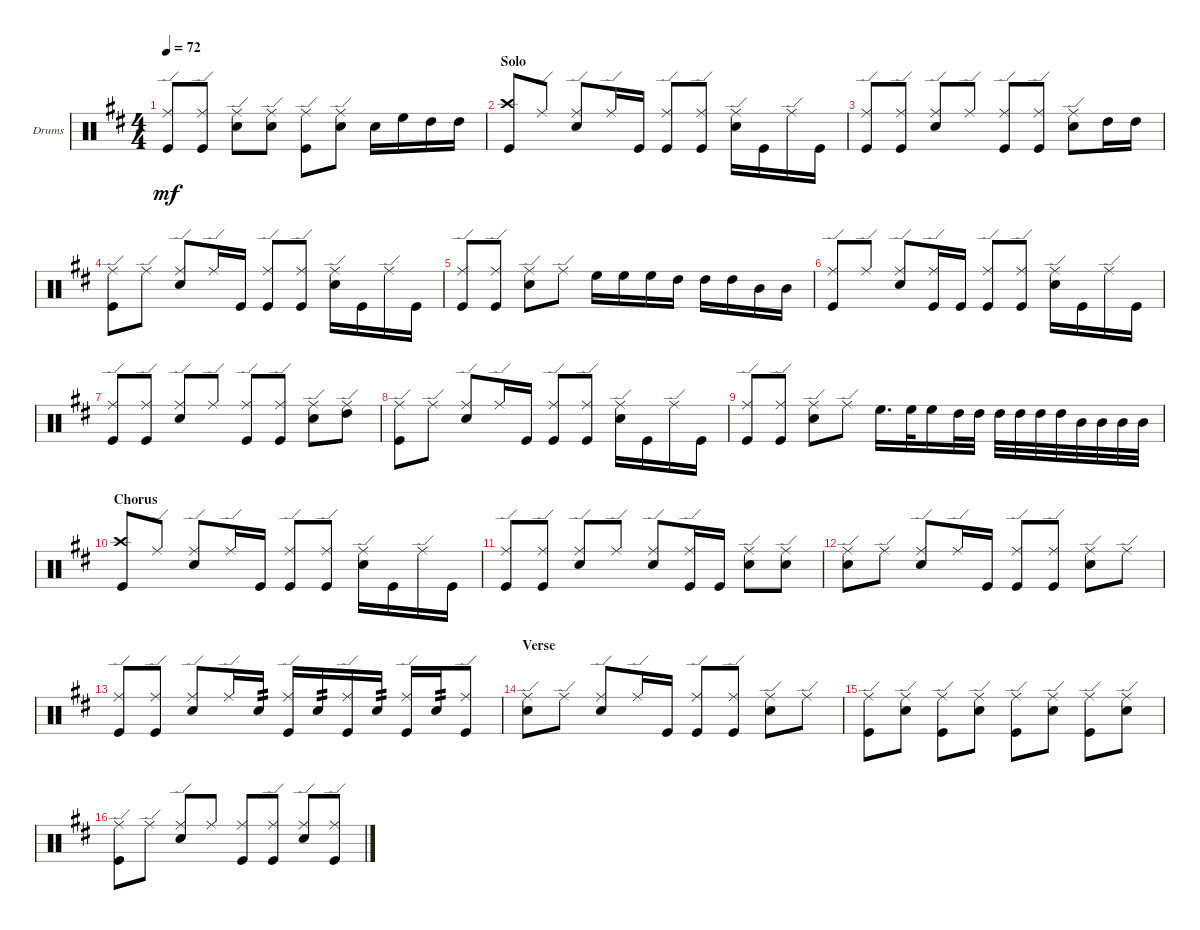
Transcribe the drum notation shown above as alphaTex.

\defaultSystemsLayout 4
\bracketExtendMode groupsimilarinstruments
\firstSystemTrackNameOrientation horizontal
\otherSystemsTrackNameOrientation horizontal
\track ("PETER CRISS" "Drums") {instrument percussion}
\staff {score}
\articulation defaults
\ts (4 4)
\tempo 72
\clef neutral
\scale
0.333333
\ks d
("Ride (edge)" "Kick (hit)").8{dy mf beam invert} ("Kick (hit)" "Ride (edge)").8 ("Ride (edge)" "Snare (hit) 2").8 ("Ride (edge)" "Snare (hit) 2").8 ("Kick (hit)" "Ride (edge)").8 ("Ride (edge)" "Snare (hit) 2").8 "Snare (hit) 2".16 "High Floor Tom (hit)".16 "High Tom (hit)".16 "High Tom (hit)".16 |
\section ("" "Solo")
\scale
0.333333 ("Crash high (hit)" "Kick (hit)").8{beam invert} "Ride (edge)".8 ("Ride (edge)" "Snare (hit) 2").8 "Ride (edge)".16 "Kick (hit)".16 ("Ride (edge)" "Kick (hit)").8{beam invert} ("Kick (hit)" "Ride (edge)").8 ("Snare (hit) 2" "Ride (edge)").16 "Kick (hit)".16 "Ride (edge)".16 "Kick (hit)".16 |
\scale
0.333333 ("Ride (edge)" "Kick (hit)").8{beam invert} ("Kick (hit)" "Ride (edge)").8 ("Snare (hit) 2" "Ride (edge)").8 "Ride (edge)".8 ("Ride (edge)" "Kick (hit)").8{beam invert} ("Kick (hit)" "Ride (edge)").8 ("Ride (edge)" "Snare (hit) 2").8 "High Tom (hit)".16 "High Tom (hit)".16 |
\scale
0.333333 ("Ride (edge)" "Kick (hit)").8 "Ride (edge)".8 ("Ride (edge)" "Snare (hit) 2").8 "Ride (edge)".16 "Kick (hit)".16 ("Kick (hit)" "Ride (edge)").8{beam invert} ("Ride (edge)" "Kick (hit)").8 ("Snare (hit) 2" "Ride (edge)").16 "Kick (hit)".16 "Ride (edge)".16 "Kick (hit)".16 |
\scale
0.333333 ("Ride (edge)" "Kick (hit)").8{beam invert} ("Kick (hit)" "Ride (edge)").8 ("Snare (hit) 2" "Ride (edge)").8 "Ride (edge)".8 "High Floor Tom (hit)".16 "High Floor Tom (hit)".16 "High Floor Tom (hit)".16 "High Tom (hit)".16 "High Tom (hit)".16 "High Tom (hit)".16 "Mid Tom (hit)".16 "Mid Tom (hit)".16 |
\scale
0.333333 ("Ride (edge)" "Kick (hit)").8 "Ride (edge)".8 ("Ride (edge)" "Snare (hit) 2").8{beam invert} ("Ride (edge)" "Kick (hit)").16 "Kick (hit)".16 ("Kick (hit)" "Ride (edge)").8{beam invert} ("Ride (edge)" "Kick (hit)").8 ("Snare (hit) 2" "Ride (edge)").16 "Kick (hit)".16 "Ride (edge)".16 "Kick (hit)".16 |
\scale
0.333333 ("Ride (edge)" "Kick (hit)").8{beam invert} ("Kick (hit)" "Ride (edge)").8 ("Snare (hit) 2" "Ride (edge)").8 "Ride (edge)".8 ("Ride (edge)" "Kick (hit)").8{beam invert} ("Kick (hit)" "Ride (edge)").8 ("Snare (hit) 2" "Ride (edge)").8 ("Ride (edge)" "High Tom (hit)").8 |
\scale
0.333333 ("Ride (edge)" "Kick (hit)").8 "Ride (edge)".8 ("Ride (edge)" "Snare (hit) 2").8 "Ride (edge)".16 "Kick (hit)".16 ("Kick (hit)" "Ride (edge)").8{beam invert} ("Ride (edge)" "Kick (hit)").8 ("Snare (hit) 2" "Ride (edge)").16 "Kick (hit)".16 "Ride (edge)".16 "Kick (hit)".16 |
\scale
0.333333 ("Ride (edge)" "Kick (hit)").8{beam invert} ("Kick (hit)" "Ride (edge)").8 ("Snare (hit) 2" "Ride (edge)").8 "Ride (edge)".8 "High Floor Tom (hit)".16{d} "High Floor Tom (hit)".32 "High Floor Tom (hit)".16 "High Tom (hit)".32 "High Tom (hit)".32 "High Tom (hit)".32 "High Tom (hit)".32 "High Tom (hit)".32 "High Tom (hit)".32 "Mid Tom (hit)".32 "Mid Tom (hit)".32 "Mid Tom (hit)".32 "Mid Tom (hit)".32 |
\section ("" "Chorus")
\scale
0.333333 ("Kick (hit)" "Crash high (hit)").8{beam invert} "Ride (edge)".8 ("Ride (edge)" "Snare (hit) 2").8 "Ride (edge)".16 "Kick (hit)".16 ("Kick (hit)" "Ride (edge)").8{beam invert} ("Ride (edge)" "Kick (hit)").8 ("Snare (hit) 2" "Ride (edge)").16 "Kick (hit)".16 "Ride (edge)".16 "Kick (hit)".16 |
\scale
0.333333 ("Ride (edge)" "Kick (hit)").8{beam invert} ("Kick (hit)" "Ride (edge)").8 ("Snare (hit) 2" "Ride (edge)").8 "Ride (edge)".8 ("Ride (edge)" "Snare (hit) 2").8{beam invert} ("Ride (edge)" "Kick (hit)").16 "Kick (hit)".16 ("Snare (hit) 2" "Ride (edge)").8 ("Ride (edge)" "Snare (hit) 2").8 |
\scale
0.333333 ("Snare (hit) 2" "Ride (edge)").8 "Ride (edge)".8 ("Ride (edge)" "Snare (hit) 2").8 "Ride (edge)".16 "Kick (hit)".16 ("Ride (edge)" "Kick (hit)").8{beam invert} ("Kick (hit)" "Ride (edge)").8 ("Snare (hit) 2" "Ride (edge)").8 "Ride (edge)".8 |
\scale
0.333333 ("Ride (edge)" "Kick (hit)").8{beam invert} ("Kick (hit)" "Ride (edge)").8 ("Snare (hit) 2" "Ride (edge)").8 "Ride (edge)".16 "Snare (hit) 2".16{tp 2} ("Kick (hit)" "Ride (edge)").16{beam invert} "Snare (hit) 2".16{tp 2} ("Kick (hit)" "Ride (edge)").16 "Snare (hit) 2".16{tp 2} ("Kick (hit)" "Ride (edge)").16{beam invert} "Snare (hit) 2".16{tp 2} ("Kick (hit)" "Ride (edge)").8 |
\section ("" "Verse")
\scale
0.333333 ("Snare (hit) 2" "Ride (edge)").8 "Ride (edge)".8 ("Ride (edge)" "Snare (hit) 2").8 "Ride (edge)".16 "Kick (hit)".16 ("Ride (edge)" "Kick (hit)").8{beam invert} ("Kick (hit)" "Ride (edge)").8 ("Snare (hit) 2" "Ride (edge)").8 "Ride (edge)".8 |
\scale
0.333333 ("Kick (hit)" "Ride (edge)").8 ("Ride (edge)" "Snare (hit) 2").8 ("Kick (hit)" "Ride (edge)").8 ("Ride (edge)" "Snare (hit) 2").8 ("Kick (hit)" "Ride (edge)").8 ("Ride (edge)" "Snare (hit) 2").8 ("Ride (edge)" "Kick (hit)").8 ("Snare (hit) 2" "Ride (edge)").8 |
\scale
0.333333 ("Ride (edge)" "Kick (hit)").8 "Ride (edge)".8 ("Ride (edge)" "Snare (hit) 2").8 "Ride (middle)".8 ("Ride (middle)" "Kick (hit)").8{beam invert} ("Kick (hit)" "Ride (edge)").8 ("Ride (edge)" "Snare (hit) 2").8{beam invert} ("Kick (hit)" "Ride (edge)").8
